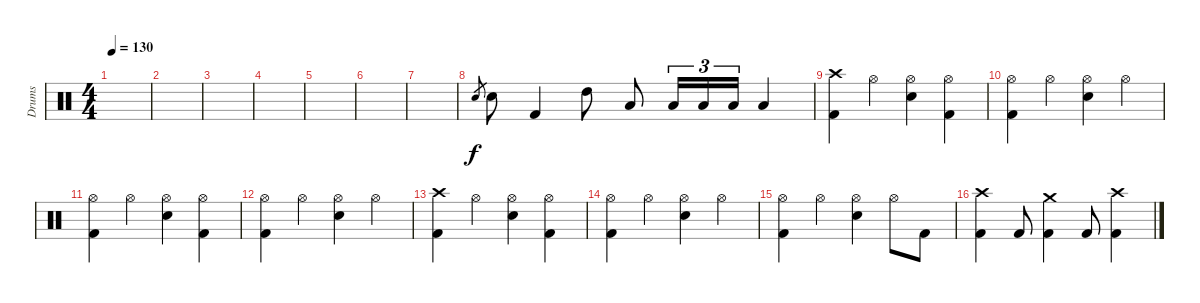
\track ("Drums" "Drums") {instrument percussion}
\staff {score}
\articulation defaults
\ts (4 4)
\tempo 130
\clef neutral
\ks c
|
|
|
|
|
|
|
"Electric Snare (hit)".8{gr} "Electric Snare (hit)".8 "Kick (hit) 2".4 "High Tom (hit)".8 "Low Tom (hit)".8 "Low Floor Tom (hit)".16{tu (3 2)} "Low Floor Tom (hit)".16{tu (3 2)} "Low Floor Tom (hit)".16{tu (3 2)} "Low Floor Tom (hit)".4 |
("Crash high (hit)" "Kick (hit) 2").4 "Hi-Hat (open)".4 ("Hi-Hat (open)" "Electric Snare (hit)").4 ("Hi-Hat (open)" "Kick (hit) 2").4 |
("Hi-Hat (open)" "Kick (hit) 2").4 "Hi-Hat (open)".4 ("Hi-Hat (open)" "Electric Snare (hit)").4 "Hi-Hat (open)".4 |
("Hi-Hat (open)" "Kick (hit) 2").4 "Hi-Hat (open)".4 ("Hi-Hat (open)" "Electric Snare (hit)").4 ("Hi-Hat (open)" "Kick (hit) 2").4 |
("Hi-Hat (open)" "Kick (hit) 2").4 "Hi-Hat (open)".4 ("Hi-Hat (open)" "Electric Snare (hit)").4 "Hi-Hat (open)".4 |
("Crash high (hit)" "Kick (hit) 2").4 "Hi-Hat (open)".4 ("Hi-Hat (open)" "Electric Snare (hit)").4 ("Hi-Hat (open)" "Kick (hit) 2").4 |
("Hi-Hat (open)" "Kick (hit) 2").4 "Hi-Hat (open)".4 ("Hi-Hat (open)" "Electric Snare (hit)").4 "Hi-Hat (open)".4 |
("Hi-Hat (open)" "Kick (hit) 2").4 "Hi-Hat (open)".4 ("Hi-Hat (open)" "Electric Snare (hit)").4 "Hi-Hat (open)".8 "Kick (hit) 2".8 |
("Crash high (hit)" "Kick (hit) 2").4 "Kick (hit) 2".8 ("Crash medium (hit)" "Kick (hit) 2").4 "Kick (hit) 2".8 ("Crash high (hit)" "Kick (hit) 2").4
